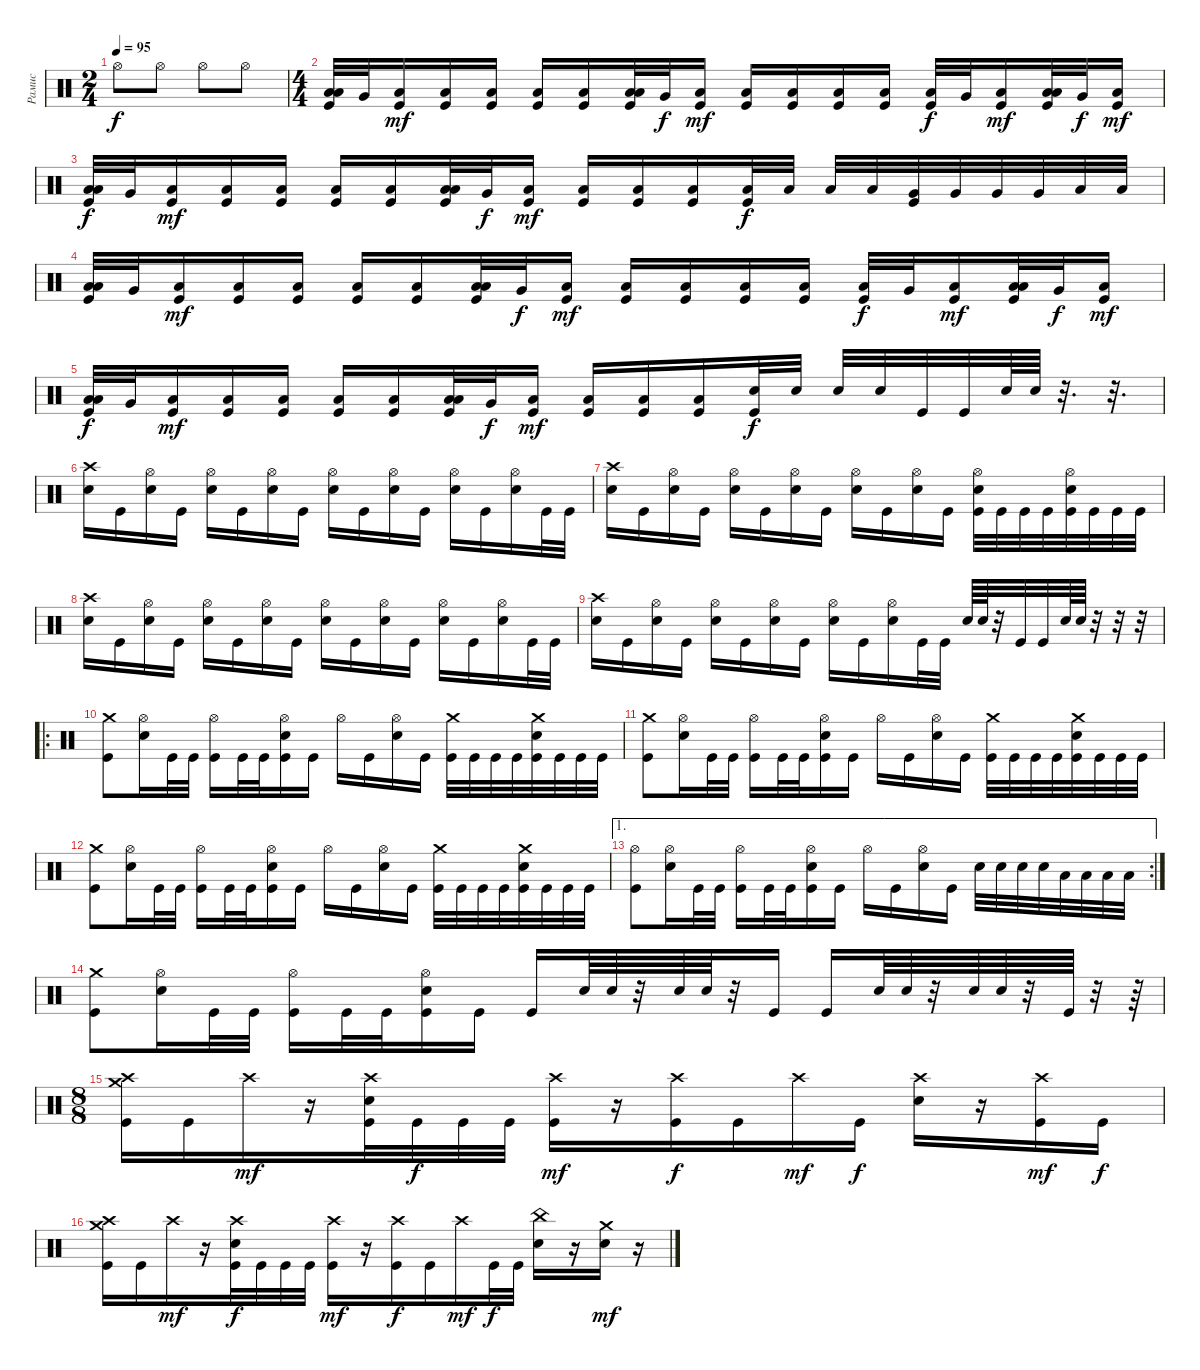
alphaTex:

\track ("Рамис" "Рамис") {instrument percussion}
\staff {score}
\articulation defaults
\ts (2 4)
\tempo 95
\clef neutral
\ks c "Hi-Hat (open)".8{dy f} "Hi-Hat (open)".8 "Hi-Hat (open)".8 "Hi-Hat (open)".8
|
\ts (4 4)
("Low Tom (hit)" "Low Floor Tom (hit)" "Kick (hit)").32 "Very Low Tom (hit)".32 ("Low Floor Tom (hit)" "Kick (hit)").16{dy mf} ("Low Floor Tom (hit)" "Kick (hit)").16 ("Low Floor Tom (hit)" "Kick (hit)").16 ("Low Floor Tom (hit)" "Kick (hit)").16 ("Low Floor Tom (hit)" "Kick (hit)").16 ("Low Tom (hit)" "Low Floor Tom (hit)" "Kick (hit)").32 "Very Low Tom (hit)".32{dy f} ("Low Floor Tom (hit)" "Kick (hit)").16{dy mf} ("Low Floor Tom (hit)" "Kick (hit)").16 ("Low Floor Tom (hit)" "Kick (hit)").16 ("Low Floor Tom (hit)" "Kick (hit)").16 ("Low Floor Tom (hit)" "Kick (hit)").16 ("Low Tom (hit)" "Kick (hit)").32{dy f} "Very Low Tom (hit)".32 ("Low Floor Tom (hit)" "Kick (hit)").16{dy mf} ("Low Tom (hit)" "Low Floor Tom (hit)" "Kick (hit)").32 "Very Low Tom (hit)".32{dy f} ("Low Floor Tom (hit)" "Kick (hit)").16{dy mf} |
("Low Tom (hit)" "Low Floor Tom (hit)" "Kick (hit)").32{dy f} "Very Low Tom (hit)".32 ("Low Floor Tom (hit)" "Kick (hit)").16{dy mf} ("Low Floor Tom (hit)" "Kick (hit)").16 ("Low Floor Tom (hit)" "Kick (hit)").16 ("Low Floor Tom (hit)" "Kick (hit)").16 ("Low Floor Tom (hit)" "Kick (hit)").16 ("Low Tom (hit)" "Low Floor Tom (hit)" "Kick (hit)").32 "Very Low Tom (hit)".32{dy f} ("Low Floor Tom (hit)" "Kick (hit)").16{dy mf} ("Low Floor Tom (hit)" "Kick (hit)").16 ("Low Floor Tom (hit)" "Kick (hit)").16 ("Low Floor Tom (hit)" "Kick (hit)").16 ("Low Tom (hit)" "Kick (hit)").32{dy f} "Low Tom (hit)".32 "Low Tom (hit)".32 "Low Tom (hit)".32 ("Very Low Tom (hit)" "Kick (hit)").32 "Very Low Tom (hit)".32 "Very Low Tom (hit)".32 "Very Low Tom (hit)".32 "Low Floor Tom (hit)".32 "Low Floor Tom (hit)".32 |
("Low Tom (hit)" "Low Floor Tom (hit)" "Kick (hit)").32 "Very Low Tom (hit)".32 ("Low Floor Tom (hit)" "Kick (hit)").16{dy mf} ("Low Floor Tom (hit)" "Kick (hit)").16 ("Low Floor Tom (hit)" "Kick (hit)").16 ("Low Floor Tom (hit)" "Kick (hit)").16 ("Low Floor Tom (hit)" "Kick (hit)").16 ("Low Tom (hit)" "Low Floor Tom (hit)" "Kick (hit)").32 "Very Low Tom (hit)".32{dy f} ("Low Floor Tom (hit)" "Kick (hit)").16{dy mf} ("Low Floor Tom (hit)" "Kick (hit)").16 ("Low Floor Tom (hit)" "Kick (hit)").16 ("Low Floor Tom (hit)" "Kick (hit)").16 ("Low Floor Tom (hit)" "Kick (hit)").16 ("Low Tom (hit)" "Kick (hit)").32{dy f} "Very Low Tom (hit)".32 ("Low Floor Tom (hit)" "Kick (hit)").16{dy mf} ("Low Tom (hit)" "Low Floor Tom (hit)" "Kick (hit)").32 "Very Low Tom (hit)".32{dy f} ("Low Floor Tom (hit)" "Kick (hit)").16{dy mf} |
("Low Tom (hit)" "Low Floor Tom (hit)" "Kick (hit)").32{dy f} "Very Low Tom (hit)".32 ("Low Floor Tom (hit)" "Kick (hit)").16{dy mf} ("Low Floor Tom (hit)" "Kick (hit)").16 ("Low Floor Tom (hit)" "Kick (hit)").16 ("Low Floor Tom (hit)" "Kick (hit)").16 ("Low Floor Tom (hit)" "Kick (hit)").16 ("Low Tom (hit)" "Low Floor Tom (hit)" "Kick (hit)").32 "Very Low Tom (hit)".32{dy f} ("Low Floor Tom (hit)" "Kick (hit)").16{dy mf} ("Low Floor Tom (hit)" "Kick (hit)").16 ("Low Floor Tom (hit)" "Kick (hit)").16 ("Low Floor Tom (hit)" "Kick (hit)").16 ("Electric Snare (hit)" "Kick (hit)").32{dy f} "Electric Snare (hit)".32 "Electric Snare (hit)".32 "Electric Snare (hit)".32 "Kick (hit)".32 "Kick (hit)".32 "Electric Snare (hit)".64 "Electric Snare (hit)".64 r.32{d} r.32{d} |
("Electric Snare (hit)" "Crash high (hit)").16 "Kick (hit)".16 ("Electric Snare (hit)" "Hi-Hat (open)").16 "Kick (hit)".16 ("Electric Snare (hit)" "Hi-Hat (open)").16 "Kick (hit)".16 ("Electric Snare (hit)" "Hi-Hat (open)").16 "Kick (hit)".16 ("Electric Snare (hit)" "Hi-Hat (open)").16 "Kick (hit)".16 ("Electric Snare (hit)" "Hi-Hat (open)").16 "Kick (hit)".16 ("Electric Snare (hit)" "Hi-Hat (open)").16 "Kick (hit)".16 ("Electric Snare (hit)" "Hi-Hat (open)").16 "Kick (hit)".32 "Kick (hit)".32 |
("Electric Snare (hit)" "Crash high (hit)").16 "Kick (hit)".16 ("Electric Snare (hit)" "Hi-Hat (open)").16 "Kick (hit)".16 ("Electric Snare (hit)" "Hi-Hat (open)").16 "Kick (hit)".16 ("Electric Snare (hit)" "Hi-Hat (open)").16 "Kick (hit)".16 ("Electric Snare (hit)" "Hi-Hat (open)").16 "Kick (hit)".16 ("Electric Snare (hit)" "Hi-Hat (open)").16 "Kick (hit)".16 ("Kick (hit)" "Electric Snare (hit)" "Hi-Hat (open)").32 "Kick (hit)".32 "Kick (hit)".32 "Kick (hit)".32 ("Kick (hit)" "Electric Snare (hit)" "Hi-Hat (open)").32 "Kick (hit)".32 "Kick (hit)".32 "Kick (hit)".32 |
("Electric Snare (hit)" "Crash high (hit)").16 "Kick (hit)".16 ("Electric Snare (hit)" "Hi-Hat (open)").16 "Kick (hit)".16 ("Electric Snare (hit)" "Hi-Hat (open)").16 "Kick (hit)".16 ("Electric Snare (hit)" "Hi-Hat (open)").16 "Kick (hit)".16 ("Electric Snare (hit)" "Hi-Hat (open)").16 "Kick (hit)".16 ("Electric Snare (hit)" "Hi-Hat (open)").16 "Kick (hit)".16 ("Electric Snare (hit)" "Hi-Hat (open)").16 "Kick (hit)".16 ("Electric Snare (hit)" "Hi-Hat (open)").16 "Kick (hit)".32 "Kick (hit)".32 |
("Electric Snare (hit)" "Crash high (hit)").16 "Kick (hit)".16 ("Electric Snare (hit)" "Hi-Hat (open)").16 "Kick (hit)".16 ("Electric Snare (hit)" "Hi-Hat (open)").16 "Kick (hit)".16 ("Electric Snare (hit)" "Hi-Hat (open)").16 "Kick (hit)".16 ("Electric Snare (hit)" "Hi-Hat (open)").16 "Kick (hit)".16 ("Electric Snare (hit)" "Hi-Hat (open)").16 "Kick (hit)".32 "Kick (hit)".32 "Electric Snare (hit)".64 "Electric Snare (hit)".64 r.32 "Kick (hit)".32 "Kick (hit)".32 "Electric Snare (hit)".64 "Electric Snare (hit)".64 r.32 r.32 r.32 |
\ro
("Crash medium (hit)" "Kick (hit)").8 ("Hi-Hat (open)" "Electric Snare (hit)").16 "Kick (hit)".32 "Kick (hit)".32 ("Hi-Hat (open)" "Kick (hit)").16 "Kick (hit)".32 "Kick (hit)".32 ("Hi-Hat (open)" "Electric Snare (hit)" "Kick (hit)").16 "Kick (hit)".16 "Hi-Hat (open)".16 "Kick (hit)".16 ("Hi-Hat (open)" "Electric Snare (hit)").16 "Kick (hit)".16 ("Crash medium (hit)" "Kick (hit)").32 "Kick (hit)".32 "Kick (hit)".32 "Kick (hit)".32 ("Crash medium (hit)" "Electric Snare (hit)" "Kick (hit)").32 "Kick (hit)".32 "Kick (hit)".32 "Kick (hit)".32 |
("Crash medium (hit)" "Kick (hit)").8 ("Hi-Hat (open)" "Electric Snare (hit)").16 "Kick (hit)".32 "Kick (hit)".32 ("Hi-Hat (open)" "Kick (hit)").16 "Kick (hit)".32 "Kick (hit)".32 ("Hi-Hat (open)" "Electric Snare (hit)" "Kick (hit)").16 "Kick (hit)".16 "Hi-Hat (open)".16 "Kick (hit)".16 ("Hi-Hat (open)" "Electric Snare (hit)").16 "Kick (hit)".16 ("Crash medium (hit)" "Kick (hit)").32 "Kick (hit)".32 "Kick (hit)".32 "Kick (hit)".32 ("Crash medium (hit)" "Electric Snare (hit)" "Kick (hit)").32 "Kick (hit)".32 "Kick (hit)".32 "Kick (hit)".32 |
("Crash medium (hit)" "Kick (hit)").8 ("Hi-Hat (open)" "Electric Snare (hit)").16 "Kick (hit)".32 "Kick (hit)".32 ("Hi-Hat (open)" "Kick (hit)").16 "Kick (hit)".32 "Kick (hit)".32 ("Hi-Hat (open)" "Electric Snare (hit)" "Kick (hit)").16 "Kick (hit)".16 "Hi-Hat (open)".16 "Kick (hit)".16 ("Hi-Hat (open)" "Electric Snare (hit)").16 "Kick (hit)".16 ("Crash medium (hit)" "Kick (hit)").32 "Kick (hit)".32 "Kick (hit)".32 "Kick (hit)".32 ("Crash medium (hit)" "Electric Snare (hit)" "Kick (hit)").32 "Kick (hit)".32 "Kick (hit)".32 "Kick (hit)".32 |
\ae 1
\rc 2
("Hi-Hat (open)" "Kick (hit)").8 ("Hi-Hat (open)" "Electric Snare (hit)").16 "Kick (hit)".32 "Kick (hit)".32 ("Hi-Hat (open)" "Kick (hit)").16 "Kick (hit)".32 "Kick (hit)".32 ("Hi-Hat (open)" "Electric Snare (hit)" "Kick (hit)").16 "Kick (hit)".16 "Hi-Hat (open)".16 "Kick (hit)".16 ("Hi-Hat (open)" "Electric Snare (hit)").16 "Kick (hit)".16 "Electric Snare (hit)".32 "Electric Snare (hit)".32 "Electric Snare (hit)".32 "Electric Snare (hit)".32 "Low Tom (hit)".32 "Low Tom (hit)".32 "Low Tom (hit)".32 "Low Tom (hit)".32 |
("Crash medium (hit)" "Kick (hit)").8 ("Hi-Hat (open)" "Electric Snare (hit)").16 "Kick (hit)".32 "Kick (hit)".32 ("Hi-Hat (open)" "Kick (hit)").16 "Kick (hit)".32 "Kick (hit)".32 ("Hi-Hat (open)" "Electric Snare (hit)" "Kick (hit)").16 "Kick (hit)".16 "Kick (hit)".16 "Electric Snare (hit)".64 "Electric Snare (hit)".64 r.32 "Electric Snare (hit)".64 "Electric Snare (hit)".64 r.32 "Kick (hit)".16 "Kick (hit)".16 "Electric Snare (hit)".64 "Electric Snare (hit)".64 r.32 "Electric Snare (hit)".64 "Electric Snare (hit)".64 r.32 "Kick (hit)".64 r.32 r.64 |
\ts (8 8)
("Crash high (hit)" "Crash medium (hit)" "Kick (hit)").16 "Kick (hit)".16 "Crash high (hit)".16{dy mf} r.16 ("Crash high (hit)" "Electric Snare (hit)" "Kick (hit)").32 "Kick (hit)".32{dy f} "Kick (hit)".32 "Kick (hit)".32 ("Crash high (hit)" "Kick (hit)").16{dy mf} r.16 ("Crash high (hit)" "Kick (hit)").16{dy f} "Kick (hit)".16 "Crash high (hit)".16{dy mf} "Kick (hit)".16{dy f} ("Crash high (hit)" "Electric Snare (hit)").16 r.16 ("Crash high (hit)" "Kick (hit)").16{dy mf} "Kick (hit)".16{dy f} |
("Crash medium (hit)" "Crash high (hit)" "Kick (hit)").16 "Kick (hit)".16 "Crash high (hit)".16{dy mf} r.16 ("Crash high (hit)" "Electric Snare (hit)" "Kick (hit)").32{dy f} "Kick (hit)".32 "Kick (hit)".32 "Kick (hit)".32 ("Crash high (hit)" "Kick (hit)").16{dy mf} r.16 ("Crash high (hit)" "Kick (hit)").16{dy f} "Kick (hit)".16 "Crash high (hit)".16{dy mf} "Kick (hit)".32{dy f} "Kick (hit)".32 ("China (hit)" "Electric Snare (hit)").16 r.16 ("Crash medium (hit)" "Electric Snare (hit)").16{dy mf} r.16
